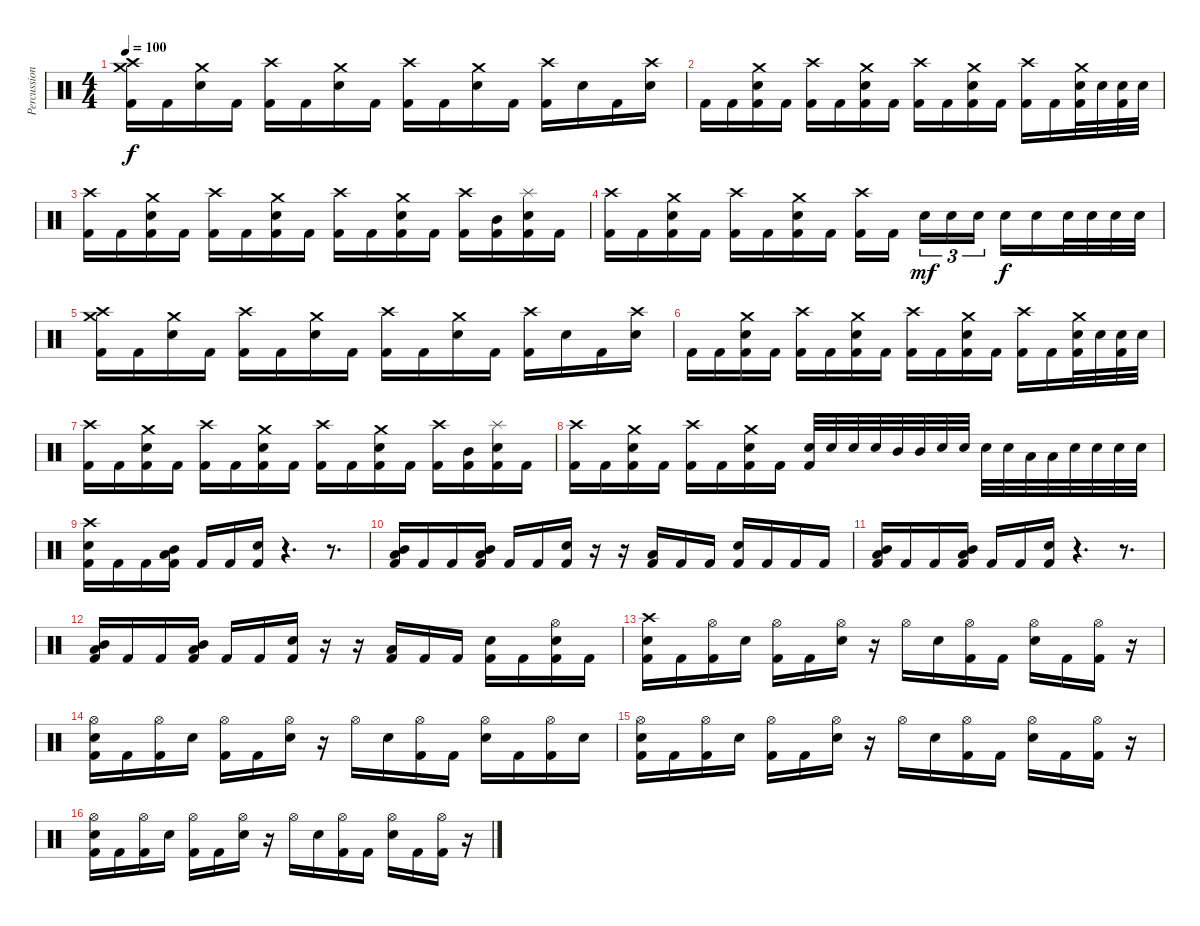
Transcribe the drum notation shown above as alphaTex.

\track ("Percussion" "Percussion") {instrument percussion}
\staff {score}
\articulation defaults
\ts (4 4)
\tempo 100
\clef neutral
\ks c
("Crash high (hit)" "Crash medium (hit)" "Kick (hit) 2").16{dy f} "Kick (hit) 2".16 ("Crash medium (hit)" "Electric Snare (hit)").16 "Kick (hit) 2".16 ("Crash high (hit)" "Kick (hit) 2").16 "Kick (hit) 2".16 ("Crash medium (hit)" "Electric Snare (hit)").16 "Kick (hit) 2".16 ("Crash high (hit)" "Kick (hit) 2").16 "Kick (hit) 2".16 ("Crash medium (hit)" "Electric Snare (hit)").16 "Kick (hit) 2".16 ("Crash high (hit)" "Kick (hit) 2").16 "Electric Snare (hit)".16 "Kick (hit) 2".16 ("Crash high (hit)" "Electric Snare (hit)").16 |
"Kick (hit) 2".16 "Kick (hit) 2".16 ("Crash medium (hit)" "Electric Snare (hit)" "Kick (hit) 2").16 "Kick (hit) 2".16 ("Crash high (hit)" "Kick (hit) 2").16 "Kick (hit) 2".16 ("Crash medium (hit)" "Electric Snare (hit)" "Kick (hit) 2").16 "Kick (hit) 2".16 ("Crash high (hit)" "Kick (hit) 2").16 "Kick (hit) 2".16 ("Crash medium (hit)" "Electric Snare (hit)" "Kick (hit) 2").16 "Kick (hit) 2".16 ("Crash high (hit)" "Kick (hit) 2").16 "Kick (hit) 2".16 ("Crash medium (hit)" "Electric Snare (hit)" "Kick (hit) 2").32 "Electric Snare (hit)".32 ("Electric Snare (hit)" "Kick (hit) 2").32 "Electric Snare (hit)".32 |
("Crash high (hit)" "Kick (hit) 2").16 "Kick (hit) 2".16 ("Crash medium (hit)" "Electric Snare (hit)" "Kick (hit) 2").16 "Kick (hit) 2".16 ("Crash high (hit)" "Kick (hit) 2").16 "Kick (hit) 2".16 ("Crash medium (hit)" "Electric Snare (hit)" "Kick (hit) 2").16 "Kick (hit) 2".16 ("Crash high (hit)" "Kick (hit) 2").16 "Kick (hit) 2".16 ("Crash medium (hit)" "Electric Snare (hit)" "Kick (hit) 2").16 "Kick (hit) 2".16 ("Crash high (hit)" "Kick (hit) 2").16 ("Mid Tom (hit)" "Kick (hit) 2").16 ("Splash (hit)" "Electric Snare (hit)" "Kick (hit) 2").16 "Kick (hit) 2".16 |
("Crash high (hit)" "Kick (hit) 2").16 "Kick (hit) 2".16 ("Crash medium (hit)" "Electric Snare (hit)" "Kick (hit) 2").16 "Kick (hit) 2".16 ("Crash high (hit)" "Kick (hit) 2").16 "Kick (hit) 2".16 ("Crash medium (hit)" "Electric Snare (hit)" "Kick (hit) 2").16 "Kick (hit) 2".16 ("Crash high (hit)" "Kick (hit) 2").16 "Kick (hit) 2".16{beam splitsecondary} "Electric Snare (hit)".16{tu (3 2) dy mf} "Electric Snare (hit)".16{tu (3 2)} "Electric Snare (hit)".16{tu (3 2)} "Electric Snare (hit)".16{dy f} "Electric Snare (hit)".16 "Electric Snare (hit)".32 "Electric Snare (hit)".32 "Electric Snare (hit)".32 "Electric Snare (hit)".32 |
("Crash high (hit)" "Crash medium (hit)" "Kick (hit) 2").16 "Kick (hit) 2".16 ("Crash medium (hit)" "Electric Snare (hit)").16 "Kick (hit) 2".16 ("Crash high (hit)" "Kick (hit) 2").16 "Kick (hit) 2".16 ("Crash medium (hit)" "Electric Snare (hit)").16 "Kick (hit) 2".16 ("Crash high (hit)" "Kick (hit) 2").16 "Kick (hit) 2".16 ("Crash medium (hit)" "Electric Snare (hit)").16 "Kick (hit) 2".16 ("Crash high (hit)" "Kick (hit) 2").16 "Electric Snare (hit)".16 "Kick (hit) 2".16 ("Crash high (hit)" "Electric Snare (hit)").16 |
"Kick (hit) 2".16 "Kick (hit) 2".16 ("Crash medium (hit)" "Electric Snare (hit)" "Kick (hit) 2").16 "Kick (hit) 2".16 ("Crash high (hit)" "Kick (hit) 2").16 "Kick (hit) 2".16 ("Crash medium (hit)" "Electric Snare (hit)" "Kick (hit) 2").16 "Kick (hit) 2".16 ("Crash high (hit)" "Kick (hit) 2").16 "Kick (hit) 2".16 ("Crash medium (hit)" "Electric Snare (hit)" "Kick (hit) 2").16 "Kick (hit) 2".16 ("Crash high (hit)" "Kick (hit) 2").16 "Kick (hit) 2".16 ("Crash medium (hit)" "Electric Snare (hit)" "Kick (hit) 2").32 "Electric Snare (hit)".32 ("Electric Snare (hit)" "Kick (hit) 2").32 "Electric Snare (hit)".32 |
("Crash high (hit)" "Kick (hit) 2").16 "Kick (hit) 2".16 ("Crash medium (hit)" "Electric Snare (hit)" "Kick (hit) 2").16 "Kick (hit) 2".16 ("Crash high (hit)" "Kick (hit) 2").16 "Kick (hit) 2".16 ("Crash medium (hit)" "Electric Snare (hit)" "Kick (hit) 2").16 "Kick (hit) 2".16 ("Crash high (hit)" "Kick (hit) 2").16 "Kick (hit) 2".16 ("Crash medium (hit)" "Electric Snare (hit)" "Kick (hit) 2").16 "Kick (hit) 2".16 ("Crash high (hit)" "Kick (hit) 2").16 ("Mid Tom (hit)" "Kick (hit) 2").16 ("Splash (hit)" "Electric Snare (hit)" "Kick (hit) 2").16 "Kick (hit) 2".16 |
("Crash high (hit)" "Kick (hit) 2").16 "Kick (hit) 2".16 ("Crash medium (hit)" "Electric Snare (hit)" "Kick (hit) 2").16 "Kick (hit) 2".16 ("Crash high (hit)" "Kick (hit) 2").16 "Kick (hit) 2".16 ("Crash medium (hit)" "Electric Snare (hit)" "Kick (hit) 2").16 "Kick (hit) 2".16 ("Electric Snare (hit)" "Kick (hit) 2").32 "Electric Snare (hit)".32 "Electric Snare (hit)".32 "Electric Snare (hit)".32 "Mid Tom (hit)".32 "Mid Tom (hit)".32 "Electric Snare (hit)".32 "Electric Snare (hit)".32 "Electric Snare (hit)".32 "Electric Snare (hit)".32 "Low Tom (hit)".32 "Low Tom (hit)".32 "Electric Snare (hit)".32 "Electric Snare (hit)".32 "Electric Snare (hit)".32 "Electric Snare (hit)".32 |
("Crash high (hit)" "Snare (hit) 2" "Kick (hit) 2").16 "Kick (hit) 2".16 "Kick (hit) 2".16 ("Low Tom (hit)" "Mid Tom (hit)" "Kick (hit) 2").16 "Kick (hit) 2".16 "Kick (hit) 2".16 ("Snare (hit) 2" "Kick (hit) 2").16 r.4{d} r.8{d} |
("Low Tom (hit)" "Mid Tom (hit)" "Kick (hit) 2").16 "Kick (hit) 2".16 "Kick (hit) 2".16 ("Low Tom (hit)" "Mid Tom (hit)" "Kick (hit) 2").16 "Kick (hit) 2".16 "Kick (hit) 2".16 ("Snare (hit) 2" "Kick (hit) 2").16 r.16 r.16 ("Low Tom (hit)" "Kick (hit) 2").16 "Kick (hit) 2".16 "Kick (hit) 2".16 ("Snare (hit) 2" "Kick (hit) 2").16 "Kick (hit) 2".16 "Kick (hit) 2".16 "Kick (hit) 2".16 |
("Low Tom (hit)" "Mid Tom (hit)" "Kick (hit) 2").16 "Kick (hit) 2".16 "Kick (hit) 2".16 ("Low Tom (hit)" "Mid Tom (hit)" "Kick (hit) 2").16 "Kick (hit) 2".16 "Kick (hit) 2".16 ("Snare (hit) 2" "Kick (hit) 2").16 r.4{d} r.8{d} |
("Low Tom (hit)" "Mid Tom (hit)" "Kick (hit) 2").16 "Kick (hit) 2".16 "Kick (hit) 2".16 ("Low Tom (hit)" "Mid Tom (hit)" "Kick (hit) 2").16 "Kick (hit) 2".16 "Kick (hit) 2".16 ("Snare (hit) 2" "Kick (hit) 2").16 r.16 r.16 ("Low Tom (hit)" "Kick (hit) 2").16 "Kick (hit) 2".16 "Kick (hit) 2".16 ("Snare (hit) 2" "Kick (hit) 2").16 "Kick (hit) 2".16 ("Hi-Hat (open)" "Electric Snare (hit)" "Kick (hit) 2").16 "Kick (hit) 2".16 |
("Crash high (hit)" "Electric Snare (hit)" "Kick (hit) 2").16 "Kick (hit) 2".16 ("Hi-Hat (open)" "Kick (hit) 2").16 "Electric Snare (hit)".16 ("Hi-Hat (open)" "Kick (hit) 2").16 "Kick (hit) 2".16 ("Hi-Hat (open)" "Electric Snare (hit)").16 r.16 "Hi-Hat (open)".16 "Electric Snare (hit)".16 ("Hi-Hat (open)" "Kick (hit) 2").16 "Kick (hit) 2".16 ("Hi-Hat (open)" "Electric Snare (hit)").16 "Kick (hit) 2".16 ("Hi-Hat (open)" "Kick (hit) 2").16 r.16 |
("Hi-Hat (open)" "Electric Snare (hit)" "Kick (hit) 2").16 "Kick (hit) 2".16 ("Hi-Hat (open)" "Kick (hit) 2").16 "Electric Snare (hit)".16 ("Hi-Hat (open)" "Kick (hit) 2").16 "Kick (hit) 2".16 ("Hi-Hat (open)" "Electric Snare (hit)").16 r.16 "Hi-Hat (open)".16 "Electric Snare (hit)".16 ("Hi-Hat (open)" "Kick (hit) 2").16 "Kick (hit) 2".16 ("Hi-Hat (open)" "Electric Snare (hit)").16 "Kick (hit) 2".16 ("Hi-Hat (open)" "Kick (hit) 2").16 "Electric Snare (hit)".16 |
("Hi-Hat (open)" "Electric Snare (hit)" "Kick (hit) 2").16 "Kick (hit) 2".16 ("Hi-Hat (open)" "Kick (hit) 2").16 "Electric Snare (hit)".16 ("Hi-Hat (open)" "Kick (hit) 2").16 "Kick (hit) 2".16 ("Hi-Hat (open)" "Electric Snare (hit)").16 r.16 "Hi-Hat (open)".16 "Electric Snare (hit)".16 ("Hi-Hat (open)" "Kick (hit) 2").16 "Kick (hit) 2".16 ("Hi-Hat (open)" "Electric Snare (hit)").16 "Kick (hit) 2".16 ("Hi-Hat (open)" "Kick (hit) 2").16 r.16 |
("Hi-Hat (open)" "Electric Snare (hit)" "Kick (hit) 2").16 "Kick (hit) 2".16 ("Hi-Hat (open)" "Kick (hit) 2").16 "Electric Snare (hit)".16 ("Hi-Hat (open)" "Kick (hit) 2").16 "Kick (hit) 2".16 ("Hi-Hat (open)" "Electric Snare (hit)").16 r.16 "Hi-Hat (open)".16 "Electric Snare (hit)".16 ("Hi-Hat (open)" "Kick (hit) 2").16 "Kick (hit) 2".16 ("Hi-Hat (open)" "Electric Snare (hit)").16 "Kick (hit) 2".16 ("Hi-Hat (open)" "Kick (hit) 2").16 r.16
